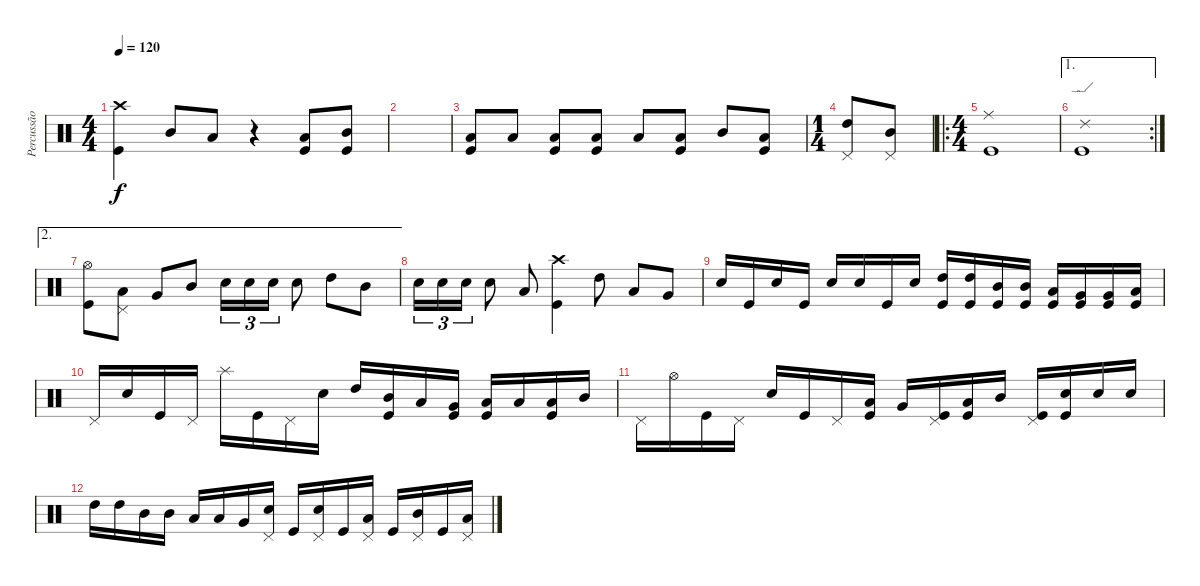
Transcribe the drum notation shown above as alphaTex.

\track ("Percussão" "Percussão") {instrument percussion}
\staff {score}
\articulation defaults
\ts (4 4)
\tempo 120
\clef neutral
\ks c
("Kick (hit)" "Crash high (hit)").4{dy f} "Mid Tom (hit)".8 "Low Tom (hit)".8 r.4 ("Kick (hit)" "Low Tom (hit)").8 ("Kick (hit)" "Mid Tom (hit)").8 |
|
("Kick (hit)" "Low Floor Tom (hit)").8 "Low Tom (hit)".8 ("Kick (hit)" "Low Floor Tom (hit)").8 ("Kick (hit)" "Low Tom (hit)").8 "Low Tom (hit)".8 ("Kick (hit)" "Low Floor Tom (hit)").8 "Mid Tom (hit)".8 ("Kick (hit)" "Low Tom (hit)").8 |
\ts (1 4)
("Pedal Hi-Hat (hit)" "High Tom (hit)").8 ("Pedal Hi-Hat (hit)" "Mid Tom (hit)").8 |
\ro
\ts (4 4)
("Kick (hit)" "Ride (middle)").1 |
\ae 1
\rc 2
("Kick (hit)" "Ride (edge) 2").1 |
\ae 2
("Kick (hit)" "Hi-Hat (open)").8 ("Low Floor Tom (hit)" "Pedal Hi-Hat (hit)").8 "Very Low Tom (hit)".8 "Mid Tom (hit)".8 "Snare (hit) 2".16{tu (3 2)} "Snare (hit) 2".16{tu (3 2)} "Snare (hit) 2".16{tu (3 2)} "Snare (hit) 2".8 "High Tom (hit)".8 "Mid Tom (hit)".8 |
"Snare (hit) 2".16{tu (3 2)} "Snare (hit) 2".16{tu (3 2)} "Snare (hit) 2".16{tu (3 2)} "Snare (hit) 2".8 "Low Tom (hit)".8 ("Kick (hit)" "Crash high (hit)").4 "High Tom (hit)".8 "Low Tom (hit)".8 "Very Low Tom (hit)".8 |
"Snare (hit) 2".16 "Kick (hit)".16 "Snare (hit) 2".16 "Kick (hit)".16 "Snare (hit) 2".16 "Snare (hit) 2".16 "Kick (hit)".16 "Snare (hit) 2".16 ("Kick (hit)" "High Tom (hit)").16 ("Kick (hit)" "High Tom (hit)").16 ("Kick (hit)" "Mid Tom (hit)").16 ("Kick (hit)" "Mid Tom (hit)").16 ("Kick (hit)" "Low Tom (hit)").16 ("Kick (hit)" "Very Low Tom (hit)").16 ("Kick (hit)" "Very Low Tom (hit)").16 ("Kick (hit)" "Low Floor Tom (hit)").16 |
"Pedal Hi-Hat (hit)".16 "Snare (hit) 2".16 "Kick (hit)".16 "Pedal Hi-Hat (hit)".16 "Splash (hit)".16 "Kick (hit)".16 "Pedal Hi-Hat (hit)".16 "Snare (hit) 2".16 "High Tom (hit)".16 ("Kick (hit)" "Mid Tom (hit)").16 "Low Tom (hit)".16 ("Kick (hit)" "Very Low Tom (hit)").16 ("Kick (hit)" "Low Floor Tom (hit)").16 "Low Floor Tom (hit)".16 ("Kick (hit)" "Low Tom (hit)").16 "Mid Tom (hit)".16 |
"Pedal Hi-Hat (hit)".16 "Hi-Hat (open)".16 "Kick (hit)".16 "Pedal Hi-Hat (hit)".16 "Snare (hit) 2".16 "Kick (hit)".16 "Pedal Hi-Hat (hit)".16 ("Kick (hit)" "Low Floor Tom (hit)").16 "Very Low Tom (hit)".16 ("Kick (hit)" "Pedal Hi-Hat (hit)").16 ("Kick (hit)" "Low Tom (hit)").16 "Mid Tom (hit)".16 ("Kick (hit)" "Pedal Hi-Hat (hit)").16 ("Kick (hit)" "Snare (hit) 2").16 "Snare (hit) 2".16 "Snare (hit) 2".16 |
"High Tom (hit)".16 "High Tom (hit)".16 "Mid Tom (hit)".16 "Mid Tom (hit)".16 "Low Tom (hit)".16 "Low Tom (hit)".16 "Very Low Tom (hit)".16 ("Snare (hit) 2" "Pedal Hi-Hat (hit)").16 "Kick (hit)".16 ("Snare (hit) 2" "Pedal Hi-Hat (hit)").16 "Kick (hit)".16 ("Low Tom (hit)" "Pedal Hi-Hat (hit)").16 "Kick (hit)".16 ("Mid Tom (hit)" "Pedal Hi-Hat (hit)").16 "Kick (hit)".16 ("Low Tom (hit)" "Pedal Hi-Hat (hit)").16
